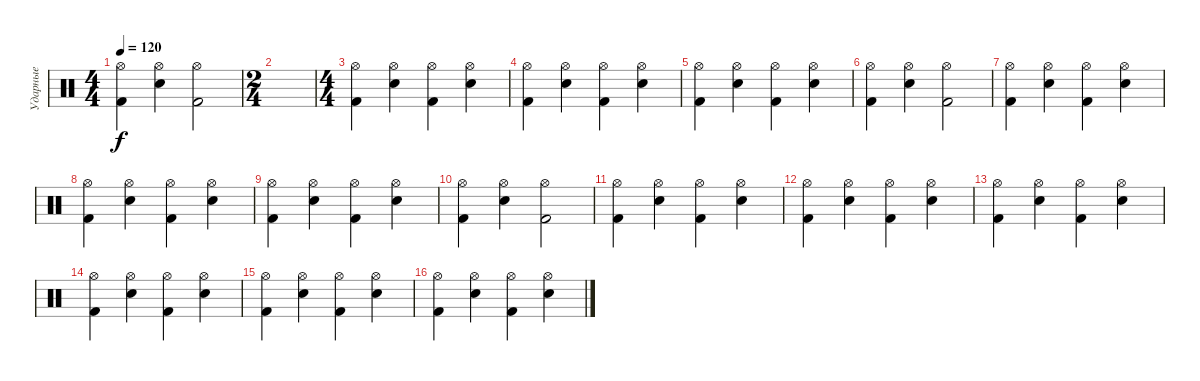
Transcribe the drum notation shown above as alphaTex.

\track ("Ударные" "Ударные") {instrument percussion}
\staff {score}
\articulation defaults
\ts (4 4)
\tempo 120
\clef neutral
\ks c
("Kick (hit) 2" "Hi-Hat (open)").4{dy f} ("Electric Snare (hit)" "Hi-Hat (open)").4 ("Kick (hit) 2" "Hi-Hat (open)").2 |
\ts (2 4)
|
\ts (4 4)
("Kick (hit) 2" "Hi-Hat (open)").4 ("Electric Snare (hit)" "Hi-Hat (open)").4 ("Kick (hit) 2" "Hi-Hat (open)").4 ("Electric Snare (hit)" "Hi-Hat (open)").4 |
("Kick (hit) 2" "Hi-Hat (open)").4 ("Electric Snare (hit)" "Hi-Hat (open)").4 ("Kick (hit) 2" "Hi-Hat (open)").4 ("Electric Snare (hit)" "Hi-Hat (open)").4 |
("Kick (hit) 2" "Hi-Hat (open)").4 ("Electric Snare (hit)" "Hi-Hat (open)").4 ("Kick (hit) 2" "Hi-Hat (open)").4 ("Electric Snare (hit)" "Hi-Hat (open)").4 |
("Kick (hit) 2" "Hi-Hat (open)").4 ("Electric Snare (hit)" "Hi-Hat (open)").4 ("Kick (hit) 2" "Hi-Hat (open)").2 |
("Kick (hit) 2" "Hi-Hat (open)").4 ("Electric Snare (hit)" "Hi-Hat (open)").4 ("Kick (hit) 2" "Hi-Hat (open)").4 ("Electric Snare (hit)" "Hi-Hat (open)").4 |
("Kick (hit) 2" "Hi-Hat (open)").4 ("Electric Snare (hit)" "Hi-Hat (open)").4 ("Kick (hit) 2" "Hi-Hat (open)").4 ("Electric Snare (hit)" "Hi-Hat (open)").4 |
("Kick (hit) 2" "Hi-Hat (open)").4 ("Electric Snare (hit)" "Hi-Hat (open)").4 ("Kick (hit) 2" "Hi-Hat (open)").4 ("Electric Snare (hit)" "Hi-Hat (open)").4 |
("Kick (hit) 2" "Hi-Hat (open)").4 ("Electric Snare (hit)" "Hi-Hat (open)").4 ("Kick (hit) 2" "Hi-Hat (open)").2 |
("Kick (hit) 2" "Hi-Hat (open)").4 ("Electric Snare (hit)" "Hi-Hat (open)").4 ("Kick (hit) 2" "Hi-Hat (open)").4 ("Electric Snare (hit)" "Hi-Hat (open)").4 |
("Kick (hit) 2" "Hi-Hat (open)").4 ("Electric Snare (hit)" "Hi-Hat (open)").4 ("Kick (hit) 2" "Hi-Hat (open)").4 ("Electric Snare (hit)" "Hi-Hat (open)").4 |
("Kick (hit) 2" "Hi-Hat (open)").4 ("Electric Snare (hit)" "Hi-Hat (open)").4 ("Kick (hit) 2" "Hi-Hat (open)").4 ("Electric Snare (hit)" "Hi-Hat (open)").4 |
("Kick (hit) 2" "Hi-Hat (open)").4 ("Electric Snare (hit)" "Hi-Hat (open)").4 ("Kick (hit) 2" "Hi-Hat (open)").4 ("Electric Snare (hit)" "Hi-Hat (open)").4 |
("Kick (hit) 2" "Hi-Hat (open)").4 ("Electric Snare (hit)" "Hi-Hat (open)").4 ("Kick (hit) 2" "Hi-Hat (open)").4 ("Electric Snare (hit)" "Hi-Hat (open)").4 |
("Kick (hit) 2" "Hi-Hat (open)").4 ("Electric Snare (hit)" "Hi-Hat (open)").4 ("Kick (hit) 2" "Hi-Hat (open)").4 ("Electric Snare (hit)" "Hi-Hat (open)").4
